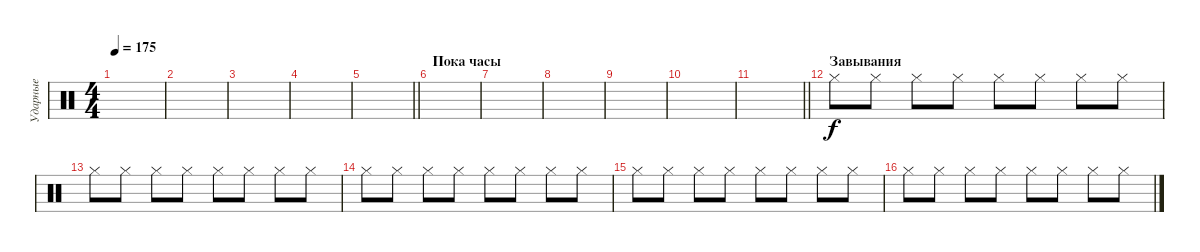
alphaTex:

\track ("Ударные" "Ударные") {instrument percussion}
\staff {score}
\articulation defaults
\ts (4 4)
\tempo 175
\clef neutral
\ks c
|
|
|
|
\barLineRight lightlight
|
\section ("" "Пока часы")
|
|
|
|
|
\barLineRight lightlight
|
\section ("" "Завывания")
"Hi-Hat (closed)".8 "Hi-Hat (closed)".8 "Hi-Hat (closed)".8 "Hi-Hat (closed)".8 "Hi-Hat (closed)".8 "Hi-Hat (closed)".8 "Hi-Hat (closed)".8 "Hi-Hat (closed)".8 |
"Hi-Hat (closed)".8 "Hi-Hat (closed)".8 "Hi-Hat (closed)".8 "Hi-Hat (closed)".8 "Hi-Hat (closed)".8 "Hi-Hat (closed)".8 "Hi-Hat (closed)".8 "Hi-Hat (closed)".8 |
"Hi-Hat (closed)".8 "Hi-Hat (closed)".8 "Hi-Hat (closed)".8 "Hi-Hat (closed)".8 "Hi-Hat (closed)".8 "Hi-Hat (closed)".8 "Hi-Hat (closed)".8 "Hi-Hat (closed)".8 |
"Hi-Hat (closed)".8 "Hi-Hat (closed)".8 "Hi-Hat (closed)".8 "Hi-Hat (closed)".8 "Hi-Hat (closed)".8 "Hi-Hat (closed)".8 "Hi-Hat (closed)".8 "Hi-Hat (closed)".8 |
"Hi-Hat (closed)".8 "Hi-Hat (closed)".8 "Hi-Hat (closed)".8 "Hi-Hat (closed)".8 "Hi-Hat (closed)".8 "Hi-Hat (closed)".8 "Hi-Hat (closed)".8 "Hi-Hat (closed)".8
